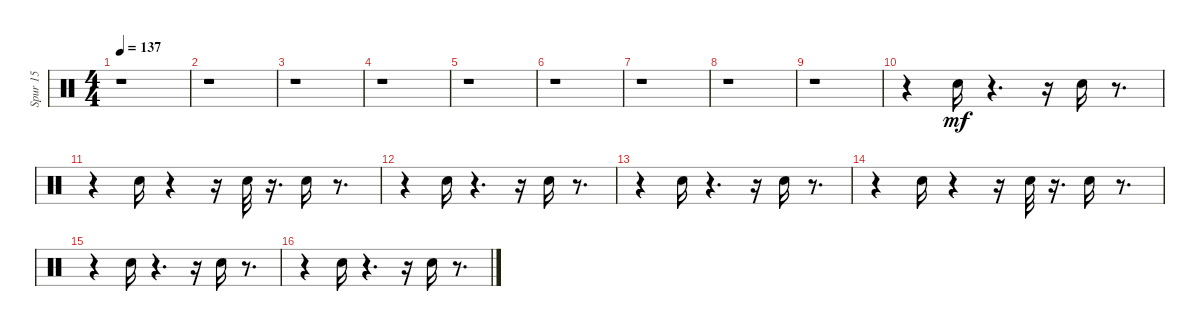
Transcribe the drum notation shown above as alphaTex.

\track ("Spur 15" "Spur 15") {instrument percussion}
\staff {score}
\articulation defaults
\ts (4 4)
\tempo 137
\clef neutral
\ks c
r.1{dy mf} |
r.1 |
r.1 |
r.1 |
r.1 |
r.1 |
r.1 |
r.1 |
r.1 |
r.4 "Hand Clap (hit)".16{volume 14} r.4{d} r.16 "Hand Clap (hit)".16 r.8{d} |
r.4 "Hand Clap (hit)".16 r.4 r.16 "Hand Clap (hit)".32 r.16{d} "Hand Clap (hit)".16 r.8{d} |
r.4 "Hand Clap (hit)".16 r.4{d} r.16 "Hand Clap (hit)".16 r.8{d} |
r.4 "Hand Clap (hit)".16 r.4{d} r.16 "Hand Clap (hit)".16 r.8{d} |
r.4 "Hand Clap (hit)".16 r.4 r.16 "Hand Clap (hit)".32 r.16{d} "Hand Clap (hit)".16 r.8{d} |
r.4 "Hand Clap (hit)".16 r.4{d} r.16 "Hand Clap (hit)".16 r.8{d} |
r.4 "Hand Clap (hit)".16 r.4{d} r.16 "Hand Clap (hit)".16 r.8{d}
